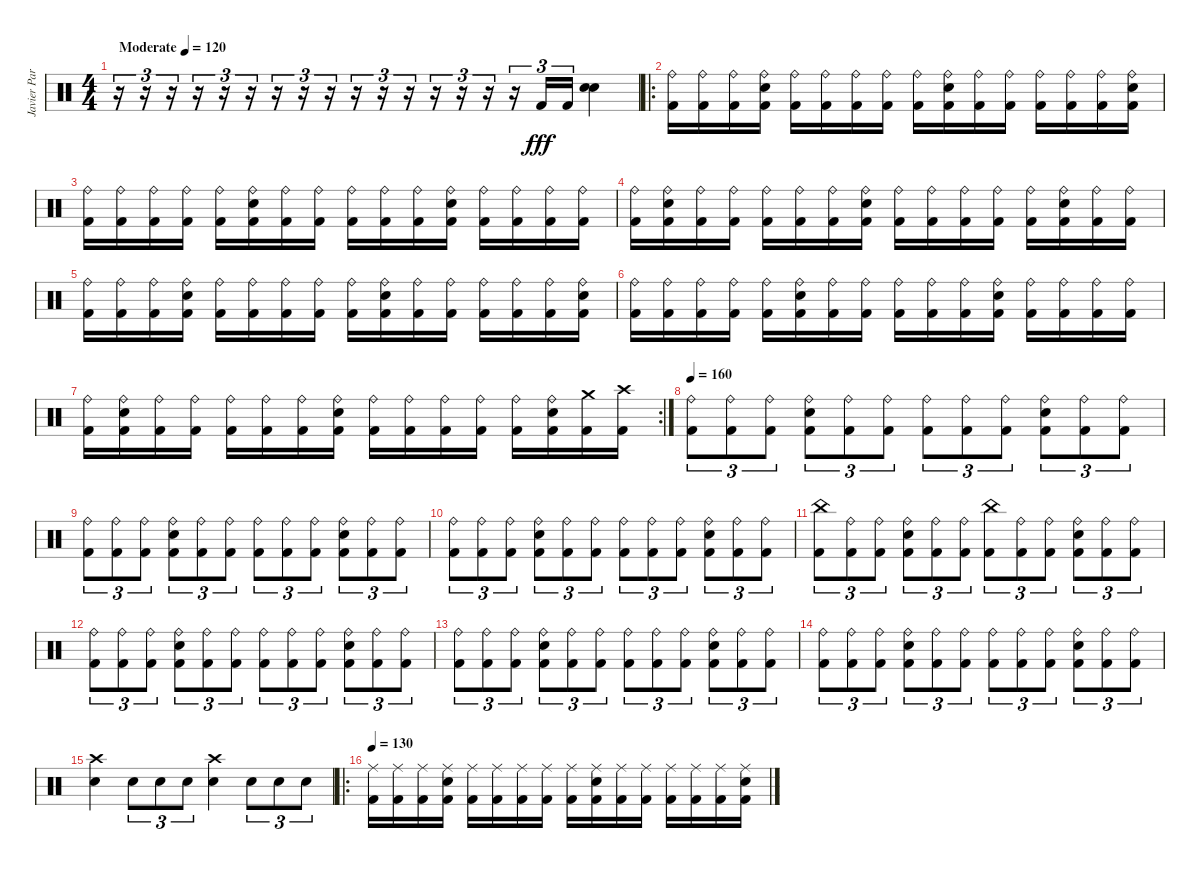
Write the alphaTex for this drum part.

\track ("Javier Partida" "Javier Par") {instrument percussion}
\staff {score}
\articulation defaults
\ts (4 4)
\tempo (120 "Moderate")
\tempo 130
\tempo (120 "Moderate")
\clef neutral
\ks c
r.16{tu (3 2) dy fff} r.16{tu (3 2)} r.16{tu (3 2)} r.16{tu (3 2)} r.16{tu (3 2)} r.16{tu (3 2)} r.16{tu (3 2)} r.16{tu (3 2)} r.16{tu (3 2)} r.16{tu (3 2)} r.16{tu (3 2)} r.16{tu (3 2)} r.16{tu (3 2)} r.16{tu (3 2)} r.16{tu (3 2)} r.16{tu (3 2)} "Kick (hit) 2".16{tu (3 2)} "Kick (hit) 2".16{tu (3 2)} ("Snare (hit) 2" "Electric Snare (hit)").4 |
\ro
("Ride (bell)" "Kick (hit) 2").16 ("Ride (bell)" "Kick (hit) 2").16 ("Ride (bell)" "Kick (hit) 2").16 ("Ride (bell)" "Electric Snare (hit)" "Kick (hit) 2").16 ("Ride (bell)" "Kick (hit) 2").16 ("Ride (bell)" "Kick (hit) 2").16 ("Ride (bell)" "Kick (hit) 2").16 ("Ride (bell)" "Kick (hit) 2").16 ("Ride (bell)" "Kick (hit) 2").16 ("Ride (bell)" "Electric Snare (hit)" "Kick (hit) 2").16 ("Ride (bell)" "Kick (hit) 2").16 ("Ride (bell)" "Kick (hit) 2").16 ("Ride (bell)" "Kick (hit) 2").16 ("Ride (bell)" "Kick (hit) 2").16 ("Ride (bell)" "Kick (hit) 2").16 ("Ride (bell)" "Electric Snare (hit)" "Kick (hit) 2").16 |
("Ride (bell)" "Kick (hit) 2").16 ("Ride (bell)" "Kick (hit) 2").16 ("Ride (bell)" "Kick (hit) 2").16 ("Ride (bell)" "Kick (hit) 2").16 ("Ride (bell)" "Kick (hit) 2").16 ("Ride (bell)" "Electric Snare (hit)" "Kick (hit) 2").16 ("Ride (bell)" "Kick (hit) 2").16 ("Ride (bell)" "Kick (hit) 2").16 ("Ride (bell)" "Kick (hit) 2").16 ("Ride (bell)" "Kick (hit) 2").16 ("Ride (bell)" "Kick (hit) 2").16 ("Ride (bell)" "Electric Snare (hit)" "Kick (hit) 2").16 ("Ride (bell)" "Kick (hit) 2").16 ("Ride (bell)" "Kick (hit) 2").16 ("Ride (bell)" "Kick (hit) 2").16 ("Ride (bell)" "Kick (hit) 2").16 |
("Ride (bell)" "Kick (hit) 2").16 ("Ride (bell)" "Electric Snare (hit)" "Kick (hit) 2").16 ("Ride (bell)" "Kick (hit) 2").16 ("Ride (bell)" "Kick (hit) 2").16 ("Ride (bell)" "Kick (hit) 2").16 ("Ride (bell)" "Kick (hit) 2").16 ("Ride (bell)" "Kick (hit) 2").16 ("Ride (bell)" "Electric Snare (hit)" "Kick (hit) 2").16 ("Ride (bell)" "Kick (hit) 2").16 ("Ride (bell)" "Kick (hit) 2").16 ("Ride (bell)" "Kick (hit) 2").16 ("Ride (bell)" "Kick (hit) 2").16 ("Ride (bell)" "Kick (hit) 2").16 ("Ride (bell)" "Electric Snare (hit)" "Kick (hit) 2").16 ("Ride (bell)" "Kick (hit) 2").16 ("Ride (bell)" "Kick (hit) 2").16 |
("Ride (bell)" "Kick (hit) 2").16 ("Ride (bell)" "Kick (hit) 2").16 ("Ride (bell)" "Kick (hit) 2").16 ("Ride (bell)" "Electric Snare (hit)" "Kick (hit) 2").16 ("Ride (bell)" "Kick (hit) 2").16 ("Ride (bell)" "Kick (hit) 2").16 ("Ride (bell)" "Kick (hit) 2").16 ("Ride (bell)" "Kick (hit) 2").16 ("Ride (bell)" "Kick (hit) 2").16 ("Ride (bell)" "Electric Snare (hit)" "Kick (hit) 2").16 ("Ride (bell)" "Kick (hit) 2").16 ("Ride (bell)" "Kick (hit) 2").16 ("Ride (bell)" "Kick (hit) 2").16 ("Ride (bell)" "Kick (hit) 2").16 ("Ride (bell)" "Kick (hit) 2").16 ("Ride (bell)" "Electric Snare (hit)" "Kick (hit) 2").16 |
("Ride (bell)" "Kick (hit) 2").16 ("Ride (bell)" "Kick (hit) 2").16 ("Ride (bell)" "Kick (hit) 2").16 ("Ride (bell)" "Kick (hit) 2").16 ("Ride (bell)" "Kick (hit) 2").16 ("Ride (bell)" "Electric Snare (hit)" "Kick (hit) 2").16 ("Ride (bell)" "Kick (hit) 2").16 ("Ride (bell)" "Kick (hit) 2").16 ("Ride (bell)" "Kick (hit) 2").16 ("Ride (bell)" "Kick (hit) 2").16 ("Ride (bell)" "Kick (hit) 2").16 ("Ride (bell)" "Electric Snare (hit)" "Kick (hit) 2").16 ("Ride (bell)" "Kick (hit) 2").16 ("Ride (bell)" "Kick (hit) 2").16 ("Ride (bell)" "Kick (hit) 2").16 ("Ride (bell)" "Kick (hit) 2").16 |
\rc 2
("Ride (bell)" "Kick (hit) 2").16 ("Ride (bell)" "Electric Snare (hit)" "Kick (hit) 2").16 ("Ride (bell)" "Kick (hit) 2").16 ("Ride (bell)" "Kick (hit) 2").16 ("Ride (bell)" "Kick (hit) 2").16 ("Ride (bell)" "Kick (hit) 2").16 ("Ride (bell)" "Kick (hit) 2").16 ("Ride (bell)" "Electric Snare (hit)" "Kick (hit) 2").16 ("Ride (bell)" "Kick (hit) 2").16 ("Ride (bell)" "Kick (hit) 2").16 ("Ride (bell)" "Kick (hit) 2").16 ("Ride (bell)" "Kick (hit) 2").16 ("Ride (bell)" "Kick (hit) 2").16 ("Ride (bell)" "Electric Snare (hit)" "Kick (hit) 2").16 ("Crash medium (hit)" "Kick (hit) 2").16 ("Crash high (hit)" "Kick (hit) 2").16 |
\tempo 160
("Ride (bell)" "Kick (hit) 2").8{tu (3 2)} ("Ride (bell)" "Kick (hit) 2").8{tu (3 2)} ("Ride (bell)" "Kick (hit) 2").8{tu (3 2)} ("Ride (bell)" "Electric Snare (hit)" "Kick (hit) 2").8{tu (3 2)} ("Ride (bell)" "Kick (hit) 2").8{tu (3 2)} ("Ride (bell)" "Kick (hit) 2").8{tu (3 2)} ("Ride (bell)" "Kick (hit) 2").8{tu (3 2)} ("Ride (bell)" "Kick (hit) 2").8{tu (3 2)} ("Ride (bell)" "Kick (hit) 2").8{tu (3 2)} ("Ride (bell)" "Electric Snare (hit)" "Kick (hit) 2").8{tu (3 2)} ("Ride (bell)" "Kick (hit) 2").8{tu (3 2)} ("Ride (bell)" "Kick (hit) 2").8{tu (3 2)} |
("Ride (bell)" "Kick (hit) 2").8{tu (3 2)} ("Ride (bell)" "Kick (hit) 2").8{tu (3 2)} ("Ride (bell)" "Kick (hit) 2").8{tu (3 2)} ("Ride (bell)" "Electric Snare (hit)" "Kick (hit) 2").8{tu (3 2)} ("Ride (bell)" "Kick (hit) 2").8{tu (3 2)} ("Ride (bell)" "Kick (hit) 2").8{tu (3 2)} ("Ride (bell)" "Kick (hit) 2").8{tu (3 2)} ("Ride (bell)" "Kick (hit) 2").8{tu (3 2)} ("Ride (bell)" "Kick (hit) 2").8{tu (3 2)} ("Ride (bell)" "Electric Snare (hit)" "Kick (hit) 2").8{tu (3 2)} ("Ride (bell)" "Kick (hit) 2").8{tu (3 2)} ("Ride (bell)" "Kick (hit) 2").8{tu (3 2)} |
("Ride (bell)" "Kick (hit) 2").8{tu (3 2)} ("Ride (bell)" "Kick (hit) 2").8{tu (3 2)} ("Ride (bell)" "Kick (hit) 2").8{tu (3 2)} ("Ride (bell)" "Electric Snare (hit)" "Kick (hit) 2").8{tu (3 2)} ("Ride (bell)" "Kick (hit) 2").8{tu (3 2)} ("Ride (bell)" "Kick (hit) 2").8{tu (3 2)} ("Ride (bell)" "Kick (hit) 2").8{tu (3 2)} ("Ride (bell)" "Kick (hit) 2").8{tu (3 2)} ("Ride (bell)" "Kick (hit) 2").8{tu (3 2)} ("Ride (bell)" "Electric Snare (hit)" "Kick (hit) 2").8{tu (3 2)} ("Ride (bell)" "Kick (hit) 2").8{tu (3 2)} ("Ride (bell)" "Kick (hit) 2").8{tu (3 2)} |
("China (hit)" "Kick (hit) 2").8{tu (3 2)} ("Ride (bell)" "Kick (hit) 2").8{tu (3 2)} ("Ride (bell)" "Kick (hit) 2").8{tu (3 2)} ("Ride (bell)" "Electric Snare (hit)" "Kick (hit) 2").8{tu (3 2)} ("Ride (bell)" "Kick (hit) 2").8{tu (3 2)} ("Ride (bell)" "Kick (hit) 2").8{tu (3 2)} ("China (hit)" "Kick (hit) 2").8{tu (3 2)} ("Ride (bell)" "Kick (hit) 2").8{tu (3 2)} ("Ride (bell)" "Kick (hit) 2").8{tu (3 2)} ("Ride (bell)" "Electric Snare (hit)" "Kick (hit) 2").8{tu (3 2)} ("Ride (bell)" "Kick (hit) 2").8{tu (3 2)} ("Ride (bell)" "Kick (hit) 2").8{tu (3 2)} |
("Ride (bell)" "Kick (hit) 2").8{tu (3 2)} ("Ride (bell)" "Kick (hit) 2").8{tu (3 2)} ("Ride (bell)" "Kick (hit) 2").8{tu (3 2)} ("Ride (bell)" "Electric Snare (hit)" "Kick (hit) 2").8{tu (3 2)} ("Ride (bell)" "Kick (hit) 2").8{tu (3 2)} ("Ride (bell)" "Kick (hit) 2").8{tu (3 2)} ("Ride (bell)" "Kick (hit) 2").8{tu (3 2)} ("Ride (bell)" "Kick (hit) 2").8{tu (3 2)} ("Ride (bell)" "Kick (hit) 2").8{tu (3 2)} ("Ride (bell)" "Electric Snare (hit)" "Kick (hit) 2").8{tu (3 2)} ("Ride (bell)" "Kick (hit) 2").8{tu (3 2)} ("Ride (bell)" "Kick (hit) 2").8{tu (3 2)} |
("Ride (bell)" "Kick (hit) 2").8{tu (3 2)} ("Ride (bell)" "Kick (hit) 2").8{tu (3 2)} ("Ride (bell)" "Kick (hit) 2").8{tu (3 2)} ("Ride (bell)" "Electric Snare (hit)" "Kick (hit) 2").8{tu (3 2)} ("Ride (bell)" "Kick (hit) 2").8{tu (3 2)} ("Ride (bell)" "Kick (hit) 2").8{tu (3 2)} ("Ride (bell)" "Kick (hit) 2").8{tu (3 2)} ("Ride (bell)" "Kick (hit) 2").8{tu (3 2)} ("Ride (bell)" "Kick (hit) 2").8{tu (3 2)} ("Ride (bell)" "Electric Snare (hit)" "Kick (hit) 2").8{tu (3 2)} ("Ride (bell)" "Kick (hit) 2").8{tu (3 2)} ("Ride (bell)" "Kick (hit) 2").8{tu (3 2)} |
("Ride (bell)" "Kick (hit) 2").8{tu (3 2)} ("Ride (bell)" "Kick (hit) 2").8{tu (3 2)} ("Ride (bell)" "Kick (hit) 2").8{tu (3 2)} ("Ride (bell)" "Electric Snare (hit)" "Kick (hit) 2").8{tu (3 2)} ("Ride (bell)" "Kick (hit) 2").8{tu (3 2)} ("Ride (bell)" "Kick (hit) 2").8{tu (3 2)} ("Ride (bell)" "Kick (hit) 2").8{tu (3 2)} ("Ride (bell)" "Kick (hit) 2").8{tu (3 2)} ("Ride (bell)" "Kick (hit) 2").8{tu (3 2)} ("Ride (bell)" "Electric Snare (hit)" "Kick (hit) 2").8{tu (3 2)} ("Ride (bell)" "Kick (hit) 2").8{tu (3 2)} ("Ride (bell)" "Kick (hit) 2").8{tu (3 2)} |
("Snare (hit) 2" "Crash high (hit)").4 "Snare (hit) 2".8{tu (3 2)} "Snare (hit) 2".8{tu (3 2)} "Snare (hit) 2".8{tu (3 2)} ("Snare (hit) 2" "Crash high (hit)").4 "Snare (hit) 2".8{tu (3 2)} "Snare (hit) 2".8{tu (3 2)} "Snare (hit) 2".8{tu (3 2)} |
\ro
\tempo 130
("Ride (middle)" "Kick (hit) 2").16 ("Ride (middle)" "Kick (hit) 2").16 ("Ride (middle)" "Kick (hit) 2").16 ("Ride (middle)" "Electric Snare (hit)" "Kick (hit) 2").16 ("Ride (middle)" "Kick (hit) 2").16 ("Ride (middle)" "Kick (hit) 2").16 ("Ride (middle)" "Kick (hit) 2").16 ("Ride (middle)" "Kick (hit) 2").16 ("Ride (middle)" "Kick (hit) 2").16 ("Ride (middle)" "Electric Snare (hit)" "Kick (hit) 2").16 ("Ride (middle)" "Kick (hit) 2").16 ("Ride (middle)" "Kick (hit) 2").16 ("Ride (middle)" "Kick (hit) 2").16 ("Ride (middle)" "Kick (hit) 2").16 ("Ride (middle)" "Kick (hit) 2").16 ("Ride (middle)" "Electric Snare (hit)" "Kick (hit) 2").16
